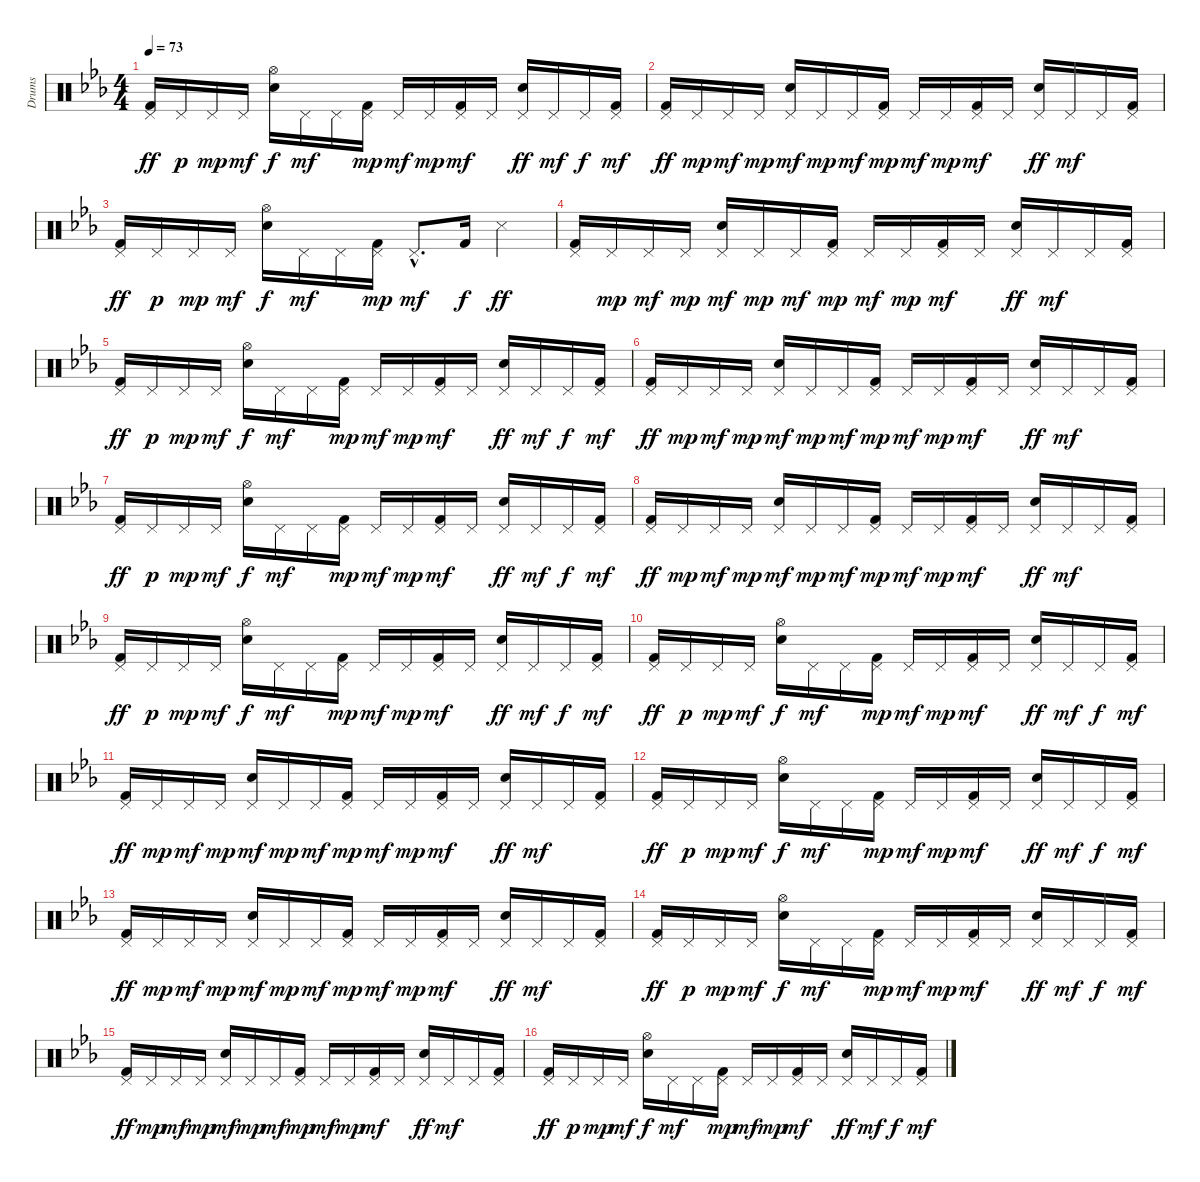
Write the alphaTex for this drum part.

\track ("Drums" "Drums") {instrument percussion}
\staff {score}
\articulation defaults
\ts (4 4)
\tempo 73
\clef neutral
\ks eb
("Kick (hit) 2" "Pedal Hi-Hat (hit)").16{dy ff} "Pedal Hi-Hat (hit)".16{dy p} "Pedal Hi-Hat (hit)".16{dy mp} "Pedal Hi-Hat (hit)".16{dy mf} ("Snare (hit) 2" "Hi-Hat (open)").16{dy f} "Pedal Hi-Hat (hit)".16{dy mf} "Pedal Hi-Hat (hit)".16 ("Kick (hit) 2" "Pedal Hi-Hat (hit)").16{dy mp} "Pedal Hi-Hat (hit)".16{dy mf} "Pedal Hi-Hat (hit)".16{dy mp} ("Kick (hit) 2" "Pedal Hi-Hat (hit)").16{dy mf} "Pedal Hi-Hat (hit)".16 ("Snare (hit) 2" "Pedal Hi-Hat (hit)").16{dy ff} "Pedal Hi-Hat (hit)".16{dy mf} "Pedal Hi-Hat (hit)".16{dy f} ("Kick (hit) 2" "Pedal Hi-Hat (hit)").16{dy mf} |
("Kick (hit) 2" "Pedal Hi-Hat (hit)").16{dy ff} "Pedal Hi-Hat (hit)".16{dy mp} "Pedal Hi-Hat (hit)".16{dy mf} "Pedal Hi-Hat (hit)".16{dy mp} ("Snare (hit) 2" "Pedal Hi-Hat (hit)").16{dy mf} "Pedal Hi-Hat (hit)".16{dy mp} "Pedal Hi-Hat (hit)".16{dy mf} ("Kick (hit) 2" "Pedal Hi-Hat (hit)").16{dy mp} "Pedal Hi-Hat (hit)".16{dy mf} "Pedal Hi-Hat (hit)".16{dy mp} ("Kick (hit) 2" "Pedal Hi-Hat (hit)").16{dy mf} "Pedal Hi-Hat (hit)".16 ("Snare (hit) 2" "Pedal Hi-Hat (hit)").16{dy ff} "Pedal Hi-Hat (hit)".16{dy mf} "Pedal Hi-Hat (hit)".16 ("Kick (hit) 2" "Pedal Hi-Hat (hit)").16 |
("Kick (hit) 2" "Pedal Hi-Hat (hit)").16{dy ff} "Pedal Hi-Hat (hit)".16{dy p} "Pedal Hi-Hat (hit)".16{dy mp} "Pedal Hi-Hat (hit)".16{dy mf} ("Snare (hit) 2" "Hi-Hat (open)").16{dy f} "Pedal Hi-Hat (hit)".16{dy mf} "Pedal Hi-Hat (hit)".16 ("Kick (hit) 2" "Pedal Hi-Hat (hit)").16{dy mp} "Pedal Hi-Hat (hit)"{hac}.8{d dy mf} "Kick (hit) 2".16{dy f} "Snare (side stick) 3".4{dy ff} |
("Kick (hit) 2" "Pedal Hi-Hat (hit)").16 "Pedal Hi-Hat (hit)".16{dy mp} "Pedal Hi-Hat (hit)".16{dy mf} "Pedal Hi-Hat (hit)".16{dy mp} ("Snare (hit) 2" "Pedal Hi-Hat (hit)").16{dy mf} "Pedal Hi-Hat (hit)".16{dy mp} "Pedal Hi-Hat (hit)".16{dy mf} ("Kick (hit) 2" "Pedal Hi-Hat (hit)").16{dy mp} "Pedal Hi-Hat (hit)".16{dy mf} "Pedal Hi-Hat (hit)".16{dy mp} ("Kick (hit) 2" "Pedal Hi-Hat (hit)").16{dy mf} "Pedal Hi-Hat (hit)".16 ("Snare (hit) 2" "Pedal Hi-Hat (hit)").16{dy ff} "Pedal Hi-Hat (hit)".16{dy mf} "Pedal Hi-Hat (hit)".16 ("Kick (hit) 2" "Pedal Hi-Hat (hit)").16 |
("Kick (hit) 2" "Pedal Hi-Hat (hit)").16{dy ff} "Pedal Hi-Hat (hit)".16{dy p} "Pedal Hi-Hat (hit)".16{dy mp} "Pedal Hi-Hat (hit)".16{dy mf} ("Snare (hit) 2" "Hi-Hat (open)").16{dy f} "Pedal Hi-Hat (hit)".16{dy mf} "Pedal Hi-Hat (hit)".16 ("Kick (hit) 2" "Pedal Hi-Hat (hit)").16{dy mp} "Pedal Hi-Hat (hit)".16{dy mf} "Pedal Hi-Hat (hit)".16{dy mp} ("Kick (hit) 2" "Pedal Hi-Hat (hit)").16{dy mf} "Pedal Hi-Hat (hit)".16 ("Snare (hit) 2" "Pedal Hi-Hat (hit)").16{dy ff} "Pedal Hi-Hat (hit)".16{dy mf} "Pedal Hi-Hat (hit)".16{dy f} ("Kick (hit) 2" "Pedal Hi-Hat (hit)").16{dy mf} |
("Kick (hit) 2" "Pedal Hi-Hat (hit)").16{dy ff} "Pedal Hi-Hat (hit)".16{dy mp} "Pedal Hi-Hat (hit)".16{dy mf} "Pedal Hi-Hat (hit)".16{dy mp} ("Snare (hit) 2" "Pedal Hi-Hat (hit)").16{dy mf} "Pedal Hi-Hat (hit)".16{dy mp} "Pedal Hi-Hat (hit)".16{dy mf} ("Kick (hit) 2" "Pedal Hi-Hat (hit)").16{dy mp} "Pedal Hi-Hat (hit)".16{dy mf} "Pedal Hi-Hat (hit)".16{dy mp} ("Kick (hit) 2" "Pedal Hi-Hat (hit)").16{dy mf} "Pedal Hi-Hat (hit)".16 ("Snare (hit) 2" "Pedal Hi-Hat (hit)").16{dy ff} "Pedal Hi-Hat (hit)".16{dy mf} "Pedal Hi-Hat (hit)".16 ("Kick (hit) 2" "Pedal Hi-Hat (hit)").16 |
("Kick (hit) 2" "Pedal Hi-Hat (hit)").16{dy ff} "Pedal Hi-Hat (hit)".16{dy p} "Pedal Hi-Hat (hit)".16{dy mp} "Pedal Hi-Hat (hit)".16{dy mf} ("Snare (hit) 2" "Hi-Hat (open)").16{dy f} "Pedal Hi-Hat (hit)".16{dy mf} "Pedal Hi-Hat (hit)".16 ("Kick (hit) 2" "Pedal Hi-Hat (hit)").16{dy mp} "Pedal Hi-Hat (hit)".16{dy mf} "Pedal Hi-Hat (hit)".16{dy mp} ("Kick (hit) 2" "Pedal Hi-Hat (hit)").16{dy mf} "Pedal Hi-Hat (hit)".16 ("Snare (hit) 2" "Pedal Hi-Hat (hit)").16{dy ff} "Pedal Hi-Hat (hit)".16{dy mf} "Pedal Hi-Hat (hit)".16{dy f} ("Kick (hit) 2" "Pedal Hi-Hat (hit)").16{dy mf} |
("Kick (hit) 2" "Pedal Hi-Hat (hit)").16{dy ff} "Pedal Hi-Hat (hit)".16{dy mp} "Pedal Hi-Hat (hit)".16{dy mf} "Pedal Hi-Hat (hit)".16{dy mp} ("Snare (hit) 2" "Pedal Hi-Hat (hit)").16{dy mf} "Pedal Hi-Hat (hit)".16{dy mp} "Pedal Hi-Hat (hit)".16{dy mf} ("Kick (hit) 2" "Pedal Hi-Hat (hit)").16{dy mp} "Pedal Hi-Hat (hit)".16{dy mf} "Pedal Hi-Hat (hit)".16{dy mp} ("Kick (hit) 2" "Pedal Hi-Hat (hit)").16{dy mf} "Pedal Hi-Hat (hit)".16 ("Snare (hit) 2" "Pedal Hi-Hat (hit)").16{dy ff} "Pedal Hi-Hat (hit)".16{dy mf} "Pedal Hi-Hat (hit)".16 ("Kick (hit) 2" "Pedal Hi-Hat (hit)").16 |
("Kick (hit) 2" "Pedal Hi-Hat (hit)").16{dy ff} "Pedal Hi-Hat (hit)".16{dy p} "Pedal Hi-Hat (hit)".16{dy mp} "Pedal Hi-Hat (hit)".16{dy mf} ("Snare (hit) 2" "Hi-Hat (open)").16{dy f} "Pedal Hi-Hat (hit)".16{dy mf} "Pedal Hi-Hat (hit)".16 ("Kick (hit) 2" "Pedal Hi-Hat (hit)").16{dy mp} "Pedal Hi-Hat (hit)".16{dy mf} "Pedal Hi-Hat (hit)".16{dy mp} ("Kick (hit) 2" "Pedal Hi-Hat (hit)").16{dy mf} "Pedal Hi-Hat (hit)".16 ("Snare (hit) 2" "Pedal Hi-Hat (hit)").16{dy ff} "Pedal Hi-Hat (hit)".16{dy mf} "Pedal Hi-Hat (hit)".16{dy f} ("Kick (hit) 2" "Pedal Hi-Hat (hit)").16{dy mf} |
("Kick (hit) 2" "Pedal Hi-Hat (hit)").16{dy ff} "Pedal Hi-Hat (hit)".16{dy p} "Pedal Hi-Hat (hit)".16{dy mp} "Pedal Hi-Hat (hit)".16{dy mf} ("Snare (hit) 2" "Hi-Hat (open)").16{dy f} "Pedal Hi-Hat (hit)".16{dy mf} "Pedal Hi-Hat (hit)".16 ("Kick (hit) 2" "Pedal Hi-Hat (hit)").16{dy mp} "Pedal Hi-Hat (hit)".16{dy mf} "Pedal Hi-Hat (hit)".16{dy mp} ("Kick (hit) 2" "Pedal Hi-Hat (hit)").16{dy mf} "Pedal Hi-Hat (hit)".16 ("Snare (hit) 2" "Pedal Hi-Hat (hit)").16{dy ff} "Pedal Hi-Hat (hit)".16{dy mf} "Pedal Hi-Hat (hit)".16{dy f} ("Kick (hit) 2" "Pedal Hi-Hat (hit)").16{dy mf} |
("Kick (hit) 2" "Pedal Hi-Hat (hit)").16{dy ff} "Pedal Hi-Hat (hit)".16{dy mp} "Pedal Hi-Hat (hit)".16{dy mf} "Pedal Hi-Hat (hit)".16{dy mp} ("Snare (hit) 2" "Pedal Hi-Hat (hit)").16{dy mf} "Pedal Hi-Hat (hit)".16{dy mp} "Pedal Hi-Hat (hit)".16{dy mf} ("Kick (hit) 2" "Pedal Hi-Hat (hit)").16{dy mp} "Pedal Hi-Hat (hit)".16{dy mf} "Pedal Hi-Hat (hit)".16{dy mp} ("Kick (hit) 2" "Pedal Hi-Hat (hit)").16{dy mf} "Pedal Hi-Hat (hit)".16 ("Snare (hit) 2" "Pedal Hi-Hat (hit)").16{dy ff} "Pedal Hi-Hat (hit)".16{dy mf} "Pedal Hi-Hat (hit)".16 ("Kick (hit) 2" "Pedal Hi-Hat (hit)").16 |
("Kick (hit) 2" "Pedal Hi-Hat (hit)").16{dy ff} "Pedal Hi-Hat (hit)".16{dy p} "Pedal Hi-Hat (hit)".16{dy mp} "Pedal Hi-Hat (hit)".16{dy mf} ("Snare (hit) 2" "Hi-Hat (open)").16{dy f} "Pedal Hi-Hat (hit)".16{dy mf} "Pedal Hi-Hat (hit)".16 ("Kick (hit) 2" "Pedal Hi-Hat (hit)").16{dy mp} "Pedal Hi-Hat (hit)".16{dy mf} "Pedal Hi-Hat (hit)".16{dy mp} ("Kick (hit) 2" "Pedal Hi-Hat (hit)").16{dy mf} "Pedal Hi-Hat (hit)".16 ("Snare (hit) 2" "Pedal Hi-Hat (hit)").16{dy ff} "Pedal Hi-Hat (hit)".16{dy mf} "Pedal Hi-Hat (hit)".16{dy f} ("Kick (hit) 2" "Pedal Hi-Hat (hit)").16{dy mf} |
("Kick (hit) 2" "Pedal Hi-Hat (hit)").16{dy ff} "Pedal Hi-Hat (hit)".16{dy mp} "Pedal Hi-Hat (hit)".16{dy mf} "Pedal Hi-Hat (hit)".16{dy mp} ("Snare (hit) 2" "Pedal Hi-Hat (hit)").16{dy mf} "Pedal Hi-Hat (hit)".16{dy mp} "Pedal Hi-Hat (hit)".16{dy mf} ("Kick (hit) 2" "Pedal Hi-Hat (hit)").16{dy mp} "Pedal Hi-Hat (hit)".16{dy mf} "Pedal Hi-Hat (hit)".16{dy mp} ("Kick (hit) 2" "Pedal Hi-Hat (hit)").16{dy mf} "Pedal Hi-Hat (hit)".16 ("Snare (hit) 2" "Pedal Hi-Hat (hit)").16{dy ff} "Pedal Hi-Hat (hit)".16{dy mf} "Pedal Hi-Hat (hit)".16 ("Kick (hit) 2" "Pedal Hi-Hat (hit)").16 |
("Kick (hit) 2" "Pedal Hi-Hat (hit)").16{dy ff} "Pedal Hi-Hat (hit)".16{dy p} "Pedal Hi-Hat (hit)".16{dy mp} "Pedal Hi-Hat (hit)".16{dy mf} ("Snare (hit) 2" "Hi-Hat (open)").16{dy f} "Pedal Hi-Hat (hit)".16{dy mf} "Pedal Hi-Hat (hit)".16 ("Kick (hit) 2" "Pedal Hi-Hat (hit)").16{dy mp} "Pedal Hi-Hat (hit)".16{dy mf} "Pedal Hi-Hat (hit)".16{dy mp} ("Kick (hit) 2" "Pedal Hi-Hat (hit)").16{dy mf} "Pedal Hi-Hat (hit)".16 ("Snare (hit) 2" "Pedal Hi-Hat (hit)").16{dy ff} "Pedal Hi-Hat (hit)".16{dy mf} "Pedal Hi-Hat (hit)".16{dy f} ("Kick (hit) 2" "Pedal Hi-Hat (hit)").16{dy mf} |
("Kick (hit) 2" "Pedal Hi-Hat (hit)").16{dy ff} "Pedal Hi-Hat (hit)".16{dy mp} "Pedal Hi-Hat (hit)".16{dy mf} "Pedal Hi-Hat (hit)".16{dy mp} ("Snare (hit) 2" "Pedal Hi-Hat (hit)").16{dy mf} "Pedal Hi-Hat (hit)".16{dy mp} "Pedal Hi-Hat (hit)".16{dy mf} ("Kick (hit) 2" "Pedal Hi-Hat (hit)").16{dy mp} "Pedal Hi-Hat (hit)".16{dy mf} "Pedal Hi-Hat (hit)".16{dy mp} ("Kick (hit) 2" "Pedal Hi-Hat (hit)").16{dy mf} "Pedal Hi-Hat (hit)".16 ("Snare (hit) 2" "Pedal Hi-Hat (hit)").16{dy ff} "Pedal Hi-Hat (hit)".16{dy mf} "Pedal Hi-Hat (hit)".16 ("Kick (hit) 2" "Pedal Hi-Hat (hit)").16 |
("Kick (hit) 2" "Pedal Hi-Hat (hit)").16{dy ff} "Pedal Hi-Hat (hit)".16{dy p} "Pedal Hi-Hat (hit)".16{dy mp} "Pedal Hi-Hat (hit)".16{dy mf} ("Snare (hit) 2" "Hi-Hat (open)").16{dy f} "Pedal Hi-Hat (hit)".16{dy mf} "Pedal Hi-Hat (hit)".16 ("Kick (hit) 2" "Pedal Hi-Hat (hit)").16{dy mp} "Pedal Hi-Hat (hit)".16{dy mf} "Pedal Hi-Hat (hit)".16{dy mp} ("Kick (hit) 2" "Pedal Hi-Hat (hit)").16{dy mf} "Pedal Hi-Hat (hit)".16 ("Snare (hit) 2" "Pedal Hi-Hat (hit)").16{dy ff} "Pedal Hi-Hat (hit)".16{dy mf} "Pedal Hi-Hat (hit)".16{dy f} ("Kick (hit) 2" "Pedal Hi-Hat (hit)").16{dy mf}
